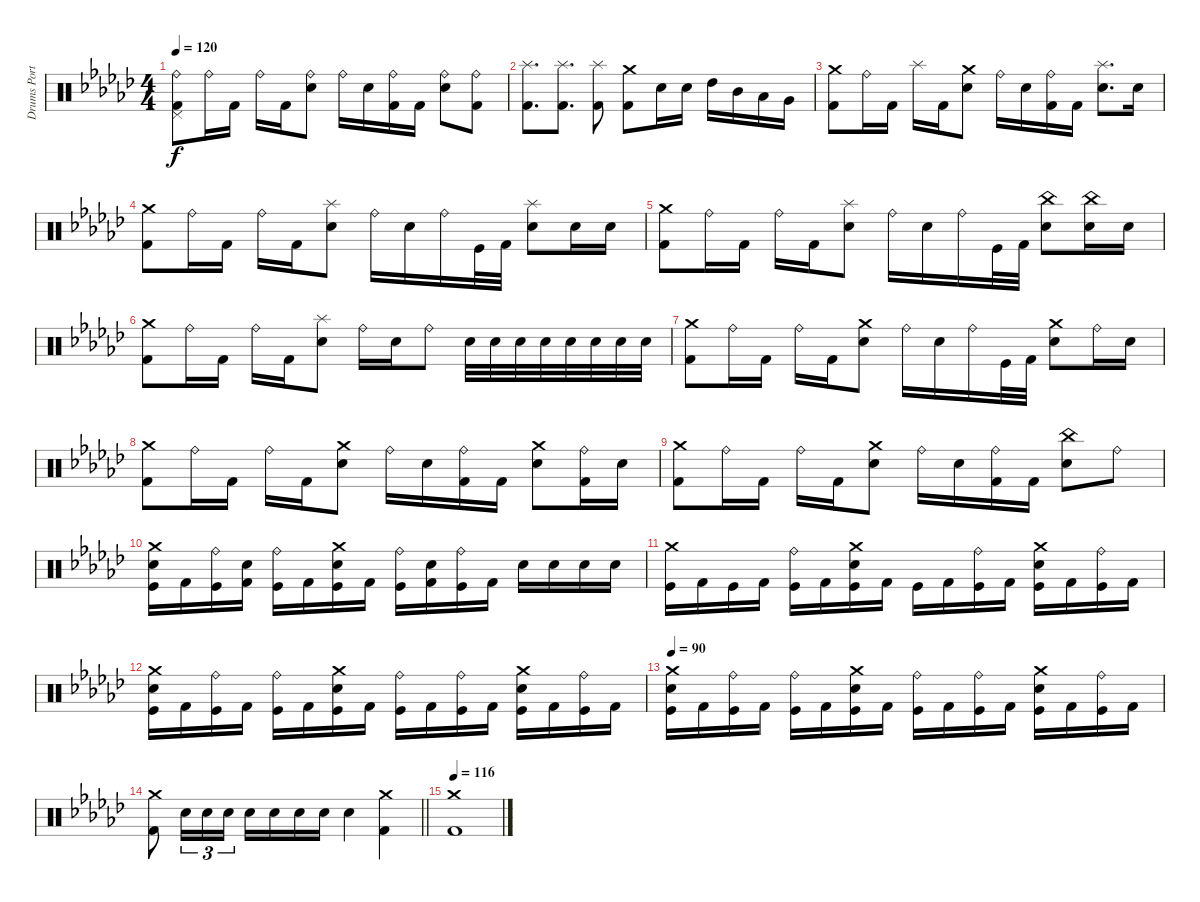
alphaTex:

\track ("Drums Portnoy" "Drums Port") {instrument percussion}
\staff {score}
\articulation defaults
\ts (4 4)
\tempo 120
\clef neutral
\ks gb
("Ride (bell)" "Pedal Hi-Hat (hit)" "Kick (hit) 2").8{dy f} "Ride (bell)".16 "Kick (hit) 2".16 "Ride (bell)".16 "Kick (hit) 2".16 ("Ride (bell)" "Snare (hit) 2").8 "Ride (bell)".16 "Snare (hit) 2".16 ("Ride (bell)" "Kick (hit) 2").16 "Kick (hit) 2".16 ("Ride (bell)" "Snare (hit) 2").8 ("Ride (bell)" "Kick (hit) 2").8 |
("Splash (hit)" "Kick (hit) 2").8{d} ("Splash (hit)" "Kick (hit) 2").8{d} ("Splash (hit)" "Kick (hit) 2").8 ("Crash medium (hit)" "Kick (hit) 2").8 "Snare (hit) 2".16 "Snare (hit) 2".16 "High Tom (hit)".16 "Mid Tom (hit)".16 "Low Tom (hit)".16 "Very Low Tom (hit)".16 |
("Crash medium (hit)" "Kick (hit) 2").8 "Ride (bell)".16 "Kick (hit) 2".16 "Splash (hit)".16 "Kick (hit) 2".16 ("Crash medium (hit)" "Snare (hit) 2").8 "Ride (bell)".16 "Snare (hit) 2".16 ("Ride (bell)" "Kick (hit) 2").16 "Kick (hit) 2".16 ("Splash (hit)" "Snare (hit) 2").8{d} "Snare (hit) 2".16 |
("Crash medium (hit)" "Kick (hit) 2").8 "Ride (bell)".16 "Kick (hit) 2".16 "Ride (bell)".16 "Kick (hit) 2".16 ("Splash (hit)" "Snare (hit) 2").8 "Ride (bell)".16 "Snare (hit) 2".16 "Ride (bell)".16 "Kick (hit)".32 "Kick (hit) 2".32 ("Splash (hit)" "Snare (hit) 2").8 "Snare (hit) 2".16 "Snare (hit) 2".16 |
("Crash medium (hit)" "Kick (hit) 2").8 "Ride (bell)".16 "Kick (hit) 2".16 "Ride (bell)".16 "Kick (hit) 2".16 ("Splash (hit)" "Snare (hit) 2").8 "Ride (bell)".16 "Snare (hit) 2".16 "Ride (bell)".16 "Kick (hit)".32 "Kick (hit) 2".32 ("China (hit)" "Snare (hit) 2").8 ("China (hit)" "Snare (hit) 2").16 "Snare (hit) 2".16 |
("Crash medium (hit)" "Kick (hit) 2").8 "Ride (bell)".16 "Kick (hit) 2".16 "Ride (bell)".16 "Kick (hit) 2".16 ("Splash (hit)" "Snare (hit) 2").8 "Ride (bell)".16 "Snare (hit) 2".16 "Ride (bell)".8 "Snare (hit) 2".32 "Snare (hit) 2".32 "Snare (hit) 2".32 "Snare (hit) 2".32 "Snare (hit) 2".32 "Snare (hit) 2".32 "Snare (hit) 2".32 "Snare (hit) 2".32 |
("Crash medium (hit)" "Kick (hit) 2").8 "Ride (bell)".16 "Kick (hit) 2".16 "Ride (bell)".16 "Kick (hit) 2".16 ("Crash medium (hit)" "Snare (hit) 2").8 "Ride (bell)".16 "Snare (hit) 2".16 "Ride (bell)".16 "Kick (hit)".32 "Kick (hit) 2".32 ("Crash medium (hit)" "Snare (hit) 2").8 "Ride (bell)".16 "Snare (hit) 2".16 |
("Crash medium (hit)" "Kick (hit) 2").8 "Ride (bell)".16 "Kick (hit) 2".16 "Ride (bell)".16 "Kick (hit) 2".16 ("Crash medium (hit)" "Snare (hit) 2").8 "Ride (bell)".16 "Snare (hit) 2".16 ("Ride (bell)" "Kick (hit) 2").16 "Kick (hit) 2".16 ("Crash medium (hit)" "Snare (hit) 2").8 ("Ride (bell)" "Kick (hit) 2").16 "Snare (hit) 2".16 |
("Crash medium (hit)" "Kick (hit) 2").8 "Ride (bell)".16 "Kick (hit) 2".16 "Ride (bell)".16 "Kick (hit) 2".16 ("Crash medium (hit)" "Snare (hit) 2").8 "Ride (bell)".16 "Snare (hit) 2".16 ("Ride (bell)" "Kick (hit) 2").16 "Kick (hit) 2".16 ("China (hit)" "Snare (hit) 2").8 "Ride (bell)".8 |
("Crash medium (hit)" "Snare (hit) 2" "Kick (hit)").16 "Kick (hit) 2".16 ("Ride (bell)" "Kick (hit)").16 ("Snare (hit) 2" "Kick (hit) 2").16 ("Ride (bell)" "Kick (hit)").16 "Kick (hit) 2".16 ("Crash medium (hit)" "Snare (hit) 2" "Kick (hit)").16 "Kick (hit) 2".16 ("Ride (bell)" "Kick (hit)").16 ("Snare (hit) 2" "Kick (hit) 2").16 ("Ride (bell)" "Kick (hit)").16 "Kick (hit) 2".16 "Snare (hit) 2".16 "Snare (hit) 2".16 "Snare (hit) 2".16 "Snare (hit) 2".16 |
("Crash medium (hit)" "Kick (hit)").16 "Kick (hit) 2".16 "Kick (hit)".16 "Kick (hit) 2".16 ("Ride (bell)" "Kick (hit)").16 "Kick (hit) 2".16 ("Crash medium (hit)" "Snare (hit) 2" "Kick (hit)").16 "Kick (hit) 2".16 "Kick (hit)".16 "Kick (hit) 2".16 ("Ride (bell)" "Kick (hit)").16 "Kick (hit) 2".16 ("Crash medium (hit)" "Snare (hit) 2" "Kick (hit)").16 "Kick (hit) 2".16 ("Ride (bell)" "Kick (hit)").16 "Kick (hit) 2".16 |
("Crash medium (hit)" "Snare (hit) 2" "Kick (hit)").16 "Kick (hit) 2".16 ("Ride (bell)" "Kick (hit)").16 "Kick (hit) 2".16 ("Ride (bell)" "Kick (hit)").16 "Kick (hit) 2".16 ("Crash medium (hit)" "Snare (hit) 2" "Kick (hit)").16 "Kick (hit) 2".16 ("Ride (bell)" "Kick (hit)").16 "Kick (hit) 2".16 ("Ride (bell)" "Kick (hit)").16 "Kick (hit) 2".16 ("Crash medium (hit)" "Snare (hit) 2" "Kick (hit)").16 "Kick (hit) 2".16 ("Ride (bell)" "Kick (hit)").16 "Kick (hit) 2".16 |
\tempo 90
("Crash medium (hit)" "Snare (hit) 2" "Kick (hit)").16 "Kick (hit) 2".16 ("Ride (bell)" "Kick (hit)").16 "Kick (hit) 2".16 ("Ride (bell)" "Kick (hit)").16 "Kick (hit) 2".16 ("Crash medium (hit)" "Snare (hit) 2" "Kick (hit)").16 "Kick (hit) 2".16 ("Ride (bell)" "Kick (hit)").16 "Kick (hit) 2".16 ("Ride (bell)" "Kick (hit)").16 "Kick (hit) 2".16 ("Crash medium (hit)" "Snare (hit) 2" "Kick (hit)").16 "Kick (hit) 2".16 ("Ride (bell)" "Kick (hit)").16 "Kick (hit) 2".16 |
\barLineRight lightlight
("Crash medium (hit)" "Kick (hit) 2").8 "Snare (hit) 2".16{tu (3 2)} "Snare (hit) 2".16{tu (3 2)} "Snare (hit) 2".16{tu (3 2)} "Snare (hit) 2".16 "Snare (hit) 2".16 "Snare (hit) 2".16 "Snare (hit) 2".16 "Snare (hit) 2".4 ("Crash medium (hit)" "Kick (hit) 2").4 |
\tempo 120
\tempo 116
("Crash medium (hit)" "Kick (hit) 2").1
